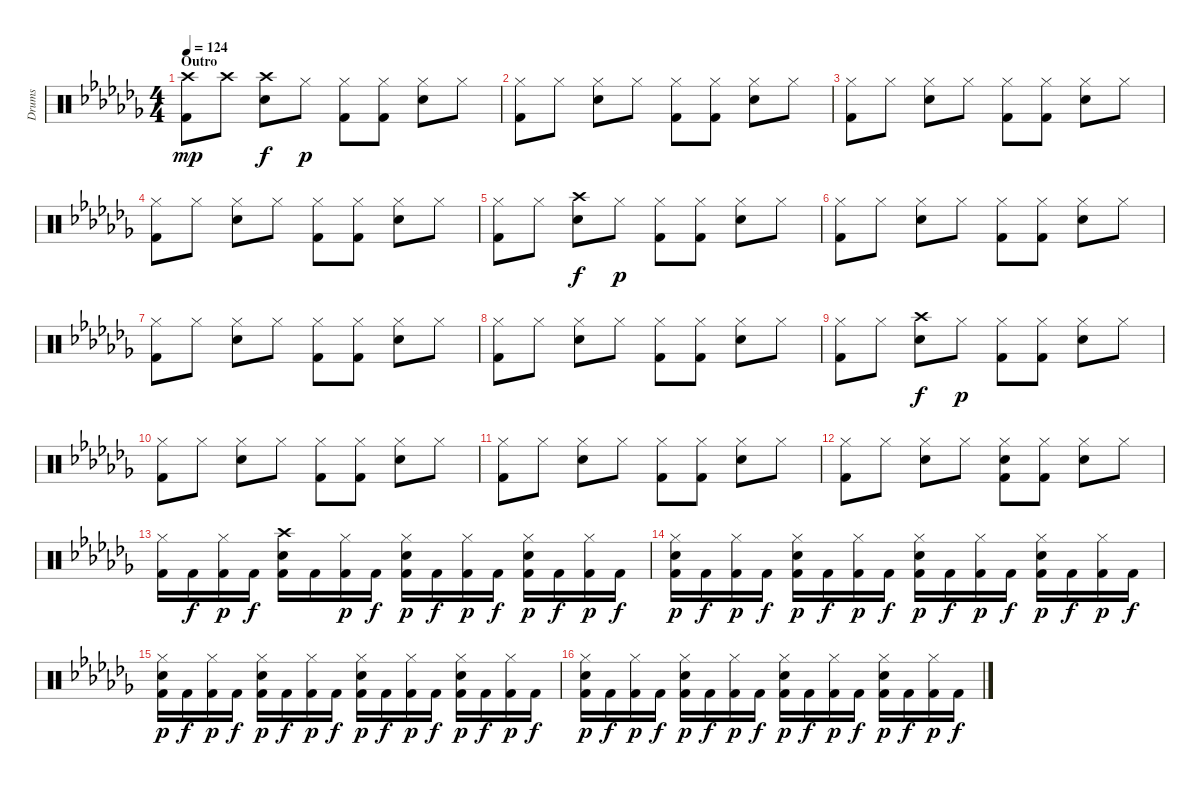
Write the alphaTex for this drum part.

\track ("Drums" "Drums") {instrument percussion}
\staff {score}
\articulation defaults
\ts (4 4)
\section ("" "Outro")
\tempo 124
\clef neutral
\ks cb
("Crash high (hit)" "Kick (hit) 2").8{dy mp} "Crash high (hit)".8 ("Crash high (hit)" "Electric Snare (hit)").8{dy f} "Hi-Hat (closed)".8{dy p} ("Hi-Hat (closed)" "Kick (hit) 2").8 ("Hi-Hat (closed)" "Kick (hit) 2").8 ("Hi-Hat (closed)" "Electric Snare (hit)").8 "Hi-Hat (closed)".8 |
("Hi-Hat (closed)" "Kick (hit) 2").8 "Hi-Hat (closed)".8 ("Hi-Hat (closed)" "Electric Snare (hit)").8 "Hi-Hat (closed)".8 ("Hi-Hat (closed)" "Kick (hit) 2").8 ("Hi-Hat (closed)" "Kick (hit) 2").8 ("Hi-Hat (closed)" "Electric Snare (hit)").8 "Hi-Hat (closed)".8 |
("Hi-Hat (closed)" "Kick (hit) 2").8 "Hi-Hat (closed)".8 ("Hi-Hat (closed)" "Electric Snare (hit)").8 "Hi-Hat (closed)".8 ("Hi-Hat (closed)" "Kick (hit) 2").8 ("Hi-Hat (closed)" "Kick (hit) 2").8 ("Hi-Hat (closed)" "Electric Snare (hit)").8 "Hi-Hat (closed)".8 |
("Hi-Hat (closed)" "Kick (hit) 2").8 "Hi-Hat (closed)".8 ("Hi-Hat (closed)" "Electric Snare (hit)").8 "Hi-Hat (closed)".8 ("Hi-Hat (closed)" "Kick (hit) 2").8 ("Hi-Hat (closed)" "Kick (hit) 2").8 ("Hi-Hat (closed)" "Electric Snare (hit)").8 "Hi-Hat (closed)".8 |
("Hi-Hat (closed)" "Kick (hit) 2").8 "Hi-Hat (closed)".8 ("Crash high (hit)" "Electric Snare (hit)").8{dy f} "Hi-Hat (closed)".8{dy p} ("Hi-Hat (closed)" "Kick (hit) 2").8 ("Hi-Hat (closed)" "Kick (hit) 2").8 ("Hi-Hat (closed)" "Electric Snare (hit)").8 "Hi-Hat (closed)".8 |
("Hi-Hat (closed)" "Kick (hit) 2").8 "Hi-Hat (closed)".8 ("Hi-Hat (closed)" "Electric Snare (hit)").8 "Hi-Hat (closed)".8 ("Hi-Hat (closed)" "Kick (hit) 2").8 ("Hi-Hat (closed)" "Kick (hit) 2").8 ("Hi-Hat (closed)" "Electric Snare (hit)").8 "Hi-Hat (closed)".8 |
("Hi-Hat (closed)" "Kick (hit) 2").8 "Hi-Hat (closed)".8 ("Hi-Hat (closed)" "Electric Snare (hit)").8 "Hi-Hat (closed)".8 ("Hi-Hat (closed)" "Kick (hit) 2").8 ("Hi-Hat (closed)" "Kick (hit) 2").8 ("Hi-Hat (closed)" "Electric Snare (hit)").8 "Hi-Hat (closed)".8 |
("Hi-Hat (closed)" "Kick (hit) 2").8 "Hi-Hat (closed)".8 ("Hi-Hat (closed)" "Electric Snare (hit)").8 "Hi-Hat (closed)".8 ("Hi-Hat (closed)" "Kick (hit) 2").8 ("Hi-Hat (closed)" "Kick (hit) 2").8 ("Hi-Hat (closed)" "Electric Snare (hit)").8 "Hi-Hat (closed)".8 |
("Hi-Hat (closed)" "Kick (hit) 2").8 "Hi-Hat (closed)".8 ("Crash high (hit)" "Electric Snare (hit)").8{dy f} "Hi-Hat (closed)".8{dy p} ("Hi-Hat (closed)" "Kick (hit) 2").8 ("Hi-Hat (closed)" "Kick (hit) 2").8 ("Hi-Hat (closed)" "Electric Snare (hit)").8 "Hi-Hat (closed)".8 |
("Hi-Hat (closed)" "Kick (hit) 2").8 "Hi-Hat (closed)".8 ("Hi-Hat (closed)" "Electric Snare (hit)").8 "Hi-Hat (closed)".8 ("Hi-Hat (closed)" "Kick (hit) 2").8 ("Hi-Hat (closed)" "Kick (hit) 2").8 ("Hi-Hat (closed)" "Electric Snare (hit)").8 "Hi-Hat (closed)".8 |
("Hi-Hat (closed)" "Kick (hit) 2").8 "Hi-Hat (closed)".8 ("Hi-Hat (closed)" "Electric Snare (hit)").8 "Hi-Hat (closed)".8 ("Hi-Hat (closed)" "Kick (hit) 2").8 ("Hi-Hat (closed)" "Kick (hit) 2").8 ("Hi-Hat (closed)" "Electric Snare (hit)").8 "Hi-Hat (closed)".8 |
("Hi-Hat (closed)" "Kick (hit) 2").8 "Hi-Hat (closed)".8 ("Hi-Hat (closed)" "Electric Snare (hit)").8 "Hi-Hat (closed)".8 ("Hi-Hat (closed)" "Electric Snare (hit)" "Kick (hit) 2").8 ("Hi-Hat (closed)" "Kick (hit) 2").8 ("Hi-Hat (closed)" "Electric Snare (hit)").8 "Hi-Hat (closed)".8 |
("Hi-Hat (closed)" "Kick (hit) 2").16 "Kick (hit) 2".16{dy f} ("Hi-Hat (closed)" "Kick (hit) 2").16{dy p} "Kick (hit) 2".16{dy f} ("Crash high (hit)" "Electric Snare (hit)" "Kick (hit) 2").16 "Kick (hit) 2".16 ("Hi-Hat (closed)" "Kick (hit) 2").16{dy p} "Kick (hit) 2".16{dy f} ("Hi-Hat (closed)" "Electric Snare (hit)" "Kick (hit) 2").16{dy p} "Kick (hit) 2".16{dy f} ("Hi-Hat (closed)" "Kick (hit) 2").16{dy p} "Kick (hit) 2".16{dy f} ("Hi-Hat (closed)" "Electric Snare (hit)" "Kick (hit) 2").16{dy p} "Kick (hit) 2".16{dy f} ("Hi-Hat (closed)" "Kick (hit) 2").16{dy p} "Kick (hit) 2".16{dy f} |
("Hi-Hat (closed)" "Electric Snare (hit)" "Kick (hit) 2").16{dy p} "Kick (hit) 2".16{dy f} ("Hi-Hat (closed)" "Kick (hit) 2").16{dy p} "Kick (hit) 2".16{dy f} ("Hi-Hat (closed)" "Electric Snare (hit)" "Kick (hit) 2").16{dy p} "Kick (hit) 2".16{dy f} ("Hi-Hat (closed)" "Kick (hit) 2").16{dy p} "Kick (hit) 2".16{dy f} ("Hi-Hat (closed)" "Electric Snare (hit)" "Kick (hit) 2").16{dy p} "Kick (hit) 2".16{dy f} ("Hi-Hat (closed)" "Kick (hit) 2").16{dy p} "Kick (hit) 2".16{dy f} ("Hi-Hat (closed)" "Electric Snare (hit)" "Kick (hit) 2").16{dy p} "Kick (hit) 2".16{dy f} ("Hi-Hat (closed)" "Kick (hit) 2").16{dy p} "Kick (hit) 2".16{dy f} |
("Hi-Hat (closed)" "Electric Snare (hit)" "Kick (hit) 2").16{dy p} "Kick (hit) 2".16{dy f} ("Hi-Hat (closed)" "Kick (hit) 2").16{dy p} "Kick (hit) 2".16{dy f} ("Hi-Hat (closed)" "Electric Snare (hit)" "Kick (hit) 2").16{dy p} "Kick (hit) 2".16{dy f} ("Hi-Hat (closed)" "Kick (hit) 2").16{dy p} "Kick (hit) 2".16{dy f} ("Hi-Hat (closed)" "Electric Snare (hit)" "Kick (hit) 2").16{dy p} "Kick (hit) 2".16{dy f} ("Hi-Hat (closed)" "Kick (hit) 2").16{dy p} "Kick (hit) 2".16{dy f} ("Hi-Hat (closed)" "Electric Snare (hit)" "Kick (hit) 2").16{dy p} "Kick (hit) 2".16{dy f} ("Hi-Hat (closed)" "Kick (hit) 2").16{dy p} "Kick (hit) 2".16{dy f} |
("Hi-Hat (closed)" "Electric Snare (hit)" "Kick (hit) 2").16{dy p} "Kick (hit) 2".16{dy f} ("Hi-Hat (closed)" "Kick (hit) 2").16{dy p} "Kick (hit) 2".16{dy f} ("Hi-Hat (closed)" "Electric Snare (hit)" "Kick (hit) 2").16{dy p} "Kick (hit) 2".16{dy f} ("Hi-Hat (closed)" "Kick (hit) 2").16{dy p} "Kick (hit) 2".16{dy f} ("Hi-Hat (closed)" "Electric Snare (hit)" "Kick (hit) 2").16{dy p} "Kick (hit) 2".16{dy f} ("Hi-Hat (closed)" "Kick (hit) 2").16{dy p} "Kick (hit) 2".16{dy f} ("Hi-Hat (closed)" "Electric Snare (hit)" "Kick (hit) 2").16{dy p} "Kick (hit) 2".16{dy f} ("Hi-Hat (closed)" "Kick (hit) 2").16{dy p} "Kick (hit) 2".16{dy f}
